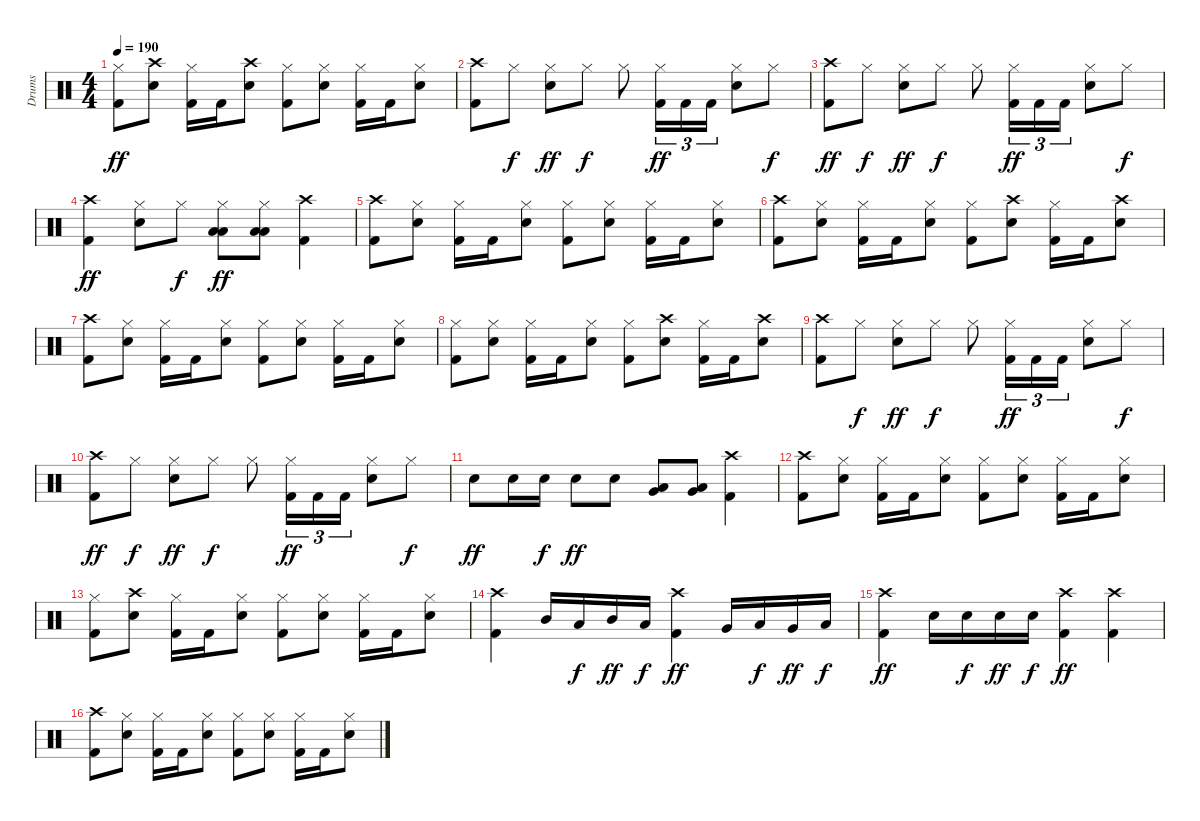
\track ("Drums" "Drums") {instrument percussion}
\staff {score}
\articulation defaults
\ts (4 4)
\tempo 190
\clef neutral
\ks c
("Hi-Hat (closed)" "Kick (hit) 2").8{dy ff} ("Crash high (hit)" "Snare (hit) 2").8 ("Hi-Hat (closed)" "Kick (hit) 2").16 "Kick (hit) 2".16 ("Crash high (hit)" "Snare (hit) 2").8 ("Hi-Hat (closed)" "Kick (hit) 2").8 ("Hi-Hat (closed)" "Snare (hit) 2").8 ("Hi-Hat (closed)" "Kick (hit) 2").16 "Kick (hit) 2".16 ("Hi-Hat (closed)" "Snare (hit) 2").8 |
("Crash high (hit)" "Kick (hit) 2").8 "Hi-Hat (closed)".8{dy f} ("Hi-Hat (closed)" "Snare (hit) 2").8{dy ff} "Hi-Hat (closed)".8{dy f} "Hi-Hat (closed)".8 ("Hi-Hat (closed)" "Kick (hit) 2").16{tu (3 2) dy ff} "Kick (hit) 2".16{tu (3 2)} "Kick (hit) 2".16{tu (3 2)} ("Hi-Hat (closed)" "Snare (hit) 2").8 "Hi-Hat (closed)".8{dy f} |
("Crash high (hit)" "Kick (hit) 2").8{dy ff} "Hi-Hat (closed)".8{dy f} ("Hi-Hat (closed)" "Snare (hit) 2").8{dy ff} "Hi-Hat (closed)".8{dy f} "Hi-Hat (closed)".8 ("Hi-Hat (closed)" "Kick (hit) 2").16{tu (3 2) dy ff} "Kick (hit) 2".16{tu (3 2)} "Kick (hit) 2".16{tu (3 2)} ("Hi-Hat (closed)" "Snare (hit) 2").8 "Hi-Hat (closed)".8{dy f} |
("Crash high (hit)" "Kick (hit) 2").4{dy ff} ("Hi-Hat (closed)" "Snare (hit) 2").8 "Hi-Hat (closed)".8{dy f} ("Hi-Hat (closed)" "Low Tom (hit)" "Low Floor Tom (hit)").8{dy ff} ("Hi-Hat (closed)" "Low Tom (hit)" "Low Floor Tom (hit)").8 ("Crash high (hit)" "Kick (hit) 2").4 |
("Crash high (hit)" "Kick (hit) 2").8 ("Hi-Hat (closed)" "Snare (hit) 2").8 ("Hi-Hat (closed)" "Kick (hit) 2").16 "Kick (hit) 2".16 ("Hi-Hat (closed)" "Snare (hit) 2").8 ("Hi-Hat (closed)" "Kick (hit) 2").8 ("Hi-Hat (closed)" "Snare (hit) 2").8 ("Hi-Hat (closed)" "Kick (hit) 2").16 "Kick (hit) 2".16 ("Hi-Hat (closed)" "Snare (hit) 2").8 |
("Crash high (hit)" "Kick (hit) 2").8 ("Hi-Hat (closed)" "Snare (hit) 2").8 ("Hi-Hat (closed)" "Kick (hit) 2").16 "Kick (hit) 2".16 ("Hi-Hat (closed)" "Snare (hit) 2").8 ("Hi-Hat (closed)" "Kick (hit) 2").8 ("Crash high (hit)" "Snare (hit) 2").8 ("Hi-Hat (closed)" "Kick (hit) 2").16 "Kick (hit) 2".16 ("Crash high (hit)" "Snare (hit) 2").8 |
("Crash high (hit)" "Kick (hit) 2").8 ("Hi-Hat (closed)" "Snare (hit) 2").8 ("Hi-Hat (closed)" "Kick (hit) 2").16 "Kick (hit) 2".16 ("Hi-Hat (closed)" "Snare (hit) 2").8 ("Hi-Hat (closed)" "Kick (hit) 2").8 ("Hi-Hat (closed)" "Snare (hit) 2").8 ("Hi-Hat (closed)" "Kick (hit) 2").16 "Kick (hit) 2".16 ("Hi-Hat (closed)" "Snare (hit) 2").8 |
("Hi-Hat (closed)" "Kick (hit) 2").8 ("Hi-Hat (closed)" "Snare (hit) 2").8 ("Hi-Hat (closed)" "Kick (hit) 2").16 "Kick (hit) 2".16 ("Hi-Hat (closed)" "Snare (hit) 2").8 ("Hi-Hat (closed)" "Kick (hit) 2").8 ("Crash high (hit)" "Snare (hit) 2").8 ("Hi-Hat (closed)" "Kick (hit) 2").16 "Kick (hit) 2".16 ("Crash high (hit)" "Snare (hit) 2").8 |
("Crash high (hit)" "Kick (hit) 2").8 "Hi-Hat (closed)".8{dy f} ("Hi-Hat (closed)" "Snare (hit) 2").8{dy ff} "Hi-Hat (closed)".8{dy f} "Hi-Hat (closed)".8 ("Hi-Hat (closed)" "Kick (hit) 2").16{tu (3 2) dy ff} "Kick (hit) 2".16{tu (3 2)} "Kick (hit) 2".16{tu (3 2)} ("Hi-Hat (closed)" "Snare (hit) 2").8 "Hi-Hat (closed)".8{dy f} |
("Crash high (hit)" "Kick (hit) 2").8{dy ff} "Hi-Hat (closed)".8{dy f} ("Hi-Hat (closed)" "Snare (hit) 2").8{dy ff} "Hi-Hat (closed)".8{dy f} "Hi-Hat (closed)".8 ("Hi-Hat (closed)" "Kick (hit) 2").16{tu (3 2) dy ff} "Kick (hit) 2".16{tu (3 2)} "Kick (hit) 2".16{tu (3 2)} ("Hi-Hat (closed)" "Snare (hit) 2").8 "Hi-Hat (closed)".8{dy f} |
"Snare (hit) 2".8{dy ff} "Snare (hit) 2".16 "Snare (hit) 2".16{dy f} "Snare (hit) 2".8{dy ff} "Snare (hit) 2".8 ("Very Low Tom (hit)" "Low Floor Tom (hit)").8 ("Very Low Tom (hit)" "Low Floor Tom (hit)").8 ("Crash high (hit)" "Kick (hit) 2").4 |
("Crash high (hit)" "Kick (hit) 2").8 ("Hi-Hat (closed)" "Snare (hit) 2").8 ("Hi-Hat (closed)" "Kick (hit) 2").16 "Kick (hit) 2".16 ("Hi-Hat (closed)" "Snare (hit) 2").8 ("Hi-Hat (closed)" "Kick (hit) 2").8 ("Hi-Hat (closed)" "Snare (hit) 2").8 ("Hi-Hat (closed)" "Kick (hit) 2").16 "Kick (hit) 2".16 ("Hi-Hat (closed)" "Snare (hit) 2").8 |
("Hi-Hat (closed)" "Kick (hit) 2").8 ("Crash high (hit)" "Snare (hit) 2").8 ("Hi-Hat (closed)" "Kick (hit) 2").16 "Kick (hit) 2".16 ("Hi-Hat (closed)" "Snare (hit) 2").8 ("Hi-Hat (closed)" "Kick (hit) 2").8 ("Hi-Hat (closed)" "Snare (hit) 2").8 ("Hi-Hat (closed)" "Kick (hit) 2").16 "Kick (hit) 2".16 ("Hi-Hat (closed)" "Snare (hit) 2").8 |
("Crash high (hit)" "Kick (hit) 2").4 "Mid Tom (hit)".16 "Low Tom (hit)".16{dy f} "Mid Tom (hit)".16{dy ff} "Low Tom (hit)".16{dy f} ("Crash high (hit)" "Kick (hit) 2").4{dy ff} "Very Low Tom (hit)".16 "Low Floor Tom (hit)".16{dy f} "Very Low Tom (hit)".16{dy ff} "Low Floor Tom (hit)".16{dy f} |
("Crash high (hit)" "Kick (hit) 2").4{dy ff} "Snare (hit) 2".16 "Snare (hit) 2".16{dy f} "Snare (hit) 2".16{dy ff} "Snare (hit) 2".16{dy f} ("Crash high (hit)" "Kick (hit) 2").4{dy ff} ("Crash high (hit)" "Kick (hit) 2").4 |
("Crash high (hit)" "Kick (hit) 2").8 ("Hi-Hat (closed)" "Snare (hit) 2").8 ("Hi-Hat (closed)" "Kick (hit) 2").16 "Kick (hit) 2".16 ("Hi-Hat (closed)" "Snare (hit) 2").8 ("Hi-Hat (closed)" "Kick (hit) 2").8 ("Hi-Hat (closed)" "Snare (hit) 2").8 ("Hi-Hat (closed)" "Kick (hit) 2").16 "Kick (hit) 2".16 ("Hi-Hat (closed)" "Snare (hit) 2").8
